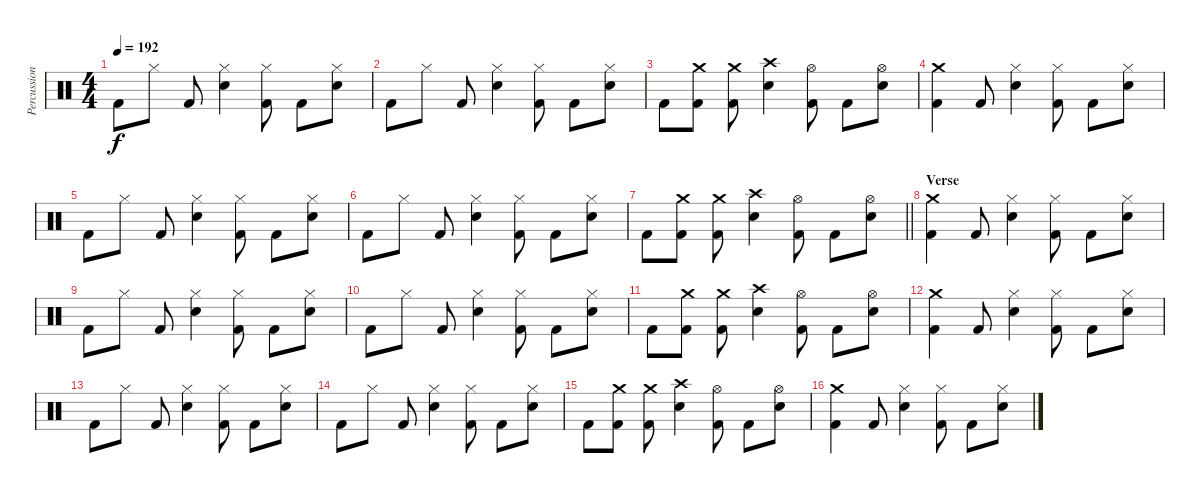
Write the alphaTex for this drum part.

\track ("Percussion" "Percussion") {instrument percussion}
\staff {score}
\articulation defaults
\ts (4 4)
\tempo 192
\clef neutral
\ks c "Kick (hit) 2".8{dy f} "Hi-Hat (closed)".8 "Kick (hit) 2".8
("Hi-Hat (closed)" "Electric Snare (hit)").4 ("Hi-Hat (closed)" "Kick (hit) 2").8 "Kick (hit) 2".8 ("Hi-Hat (closed)" "Electric Snare (hit)").8 |
"Kick (hit) 2".8 "Hi-Hat (closed)".8 "Kick (hit) 2".8 ("Hi-Hat (closed)" "Electric Snare (hit)").4 ("Hi-Hat (closed)" "Kick (hit) 2").8 "Kick (hit) 2".8 ("Hi-Hat (closed)" "Electric Snare (hit)").8 |
"Kick (hit) 2".8 ("Crash medium (hit)" "Kick (hit) 2").8 ("Crash medium (hit)" "Kick (hit) 2").8 ("Crash high (hit)" "Electric Snare (hit)").4 ("Hi-Hat (open)" "Kick (hit) 2").8 "Kick (hit) 2".8 ("Hi-Hat (open)" "Electric Snare (hit)").8 |
("Crash medium (hit)" "Kick (hit) 2").4 "Kick (hit) 2".8 ("Hi-Hat (closed)" "Electric Snare (hit)").4 ("Hi-Hat (closed)" "Kick (hit) 2").8 "Kick (hit) 2".8 ("Hi-Hat (closed)" "Electric Snare (hit)").8 |
"Kick (hit) 2".8 "Hi-Hat (closed)".8 "Kick (hit) 2".8 ("Hi-Hat (closed)" "Electric Snare (hit)").4 ("Hi-Hat (closed)" "Kick (hit) 2").8 "Kick (hit) 2".8 ("Hi-Hat (closed)" "Electric Snare (hit)").8 |
"Kick (hit) 2".8 "Hi-Hat (closed)".8 "Kick (hit) 2".8 ("Hi-Hat (closed)" "Electric Snare (hit)").4 ("Hi-Hat (closed)" "Kick (hit) 2").8 "Kick (hit) 2".8 ("Hi-Hat (closed)" "Electric Snare (hit)").8 |
\barLineRight lightlight "Kick (hit) 2".8
("Crash medium (hit)" "Kick (hit) 2").8 ("Crash medium (hit)" "Kick (hit) 2").8 ("Crash high (hit)" "Electric Snare (hit)").4 ("Hi-Hat (open)" "Kick (hit) 2").8 "Kick (hit) 2".8 ("Hi-Hat (open)" "Electric Snare (hit)").8 |
\section ("" "Verse")
("Crash medium (hit)" "Kick (hit) 2").4 "Kick (hit) 2".8 ("Hi-Hat (closed)" "Electric Snare (hit)").4 ("Hi-Hat (closed)" "Kick (hit) 2").8 "Kick (hit) 2".8 ("Hi-Hat (closed)" "Electric Snare (hit)").8 |
"Kick (hit) 2".8 "Hi-Hat (closed)".8 "Kick (hit) 2".8 ("Hi-Hat (closed)" "Electric Snare (hit)").4 ("Hi-Hat (closed)" "Kick (hit) 2").8 "Kick (hit) 2".8 ("Hi-Hat (closed)" "Electric Snare (hit)").8 |
"Kick (hit) 2".8 "Hi-Hat (closed)".8 "Kick (hit) 2".8 ("Hi-Hat (closed)" "Electric Snare (hit)").4 ("Hi-Hat (closed)" "Kick (hit) 2").8 "Kick (hit) 2".8 ("Hi-Hat (closed)" "Electric Snare (hit)").8 |
"Kick (hit) 2".8 ("Crash medium (hit)" "Kick (hit) 2").8 ("Crash medium (hit)" "Kick (hit) 2").8 ("Crash high (hit)" "Electric Snare (hit)").4 ("Hi-Hat (open)" "Kick (hit) 2").8 "Kick (hit) 2".8 ("Hi-Hat (open)" "Electric Snare (hit)").8 |
("Crash medium (hit)" "Kick (hit) 2").4 "Kick (hit) 2".8 ("Hi-Hat (closed)" "Electric Snare (hit)").4 ("Hi-Hat (closed)" "Kick (hit) 2").8 "Kick (hit) 2".8 ("Hi-Hat (closed)" "Electric Snare (hit)").8 |
"Kick (hit) 2".8 "Hi-Hat (closed)".8 "Kick (hit) 2".8 ("Hi-Hat (closed)" "Electric Snare (hit)").4 ("Hi-Hat (closed)" "Kick (hit) 2").8 "Kick (hit) 2".8 ("Hi-Hat (closed)" "Electric Snare (hit)").8 |
"Kick (hit) 2".8 "Hi-Hat (closed)".8 "Kick (hit) 2".8 ("Hi-Hat (closed)" "Electric Snare (hit)").4 ("Hi-Hat (closed)" "Kick (hit) 2").8 "Kick (hit) 2".8 ("Hi-Hat (closed)" "Electric Snare (hit)").8 |
"Kick (hit) 2".8 ("Crash medium (hit)" "Kick (hit) 2").8 ("Crash medium (hit)" "Kick (hit) 2").8 ("Crash high (hit)" "Electric Snare (hit)").4 ("Hi-Hat (open)" "Kick (hit) 2").8 "Kick (hit) 2".8 ("Hi-Hat (open)" "Electric Snare (hit)").8 |
("Crash medium (hit)" "Kick (hit) 2").4 "Kick (hit) 2".8 ("Hi-Hat (closed)" "Electric Snare (hit)").4 ("Hi-Hat (closed)" "Kick (hit) 2").8 "Kick (hit) 2".8 ("Hi-Hat (closed)" "Electric Snare (hit)").8
